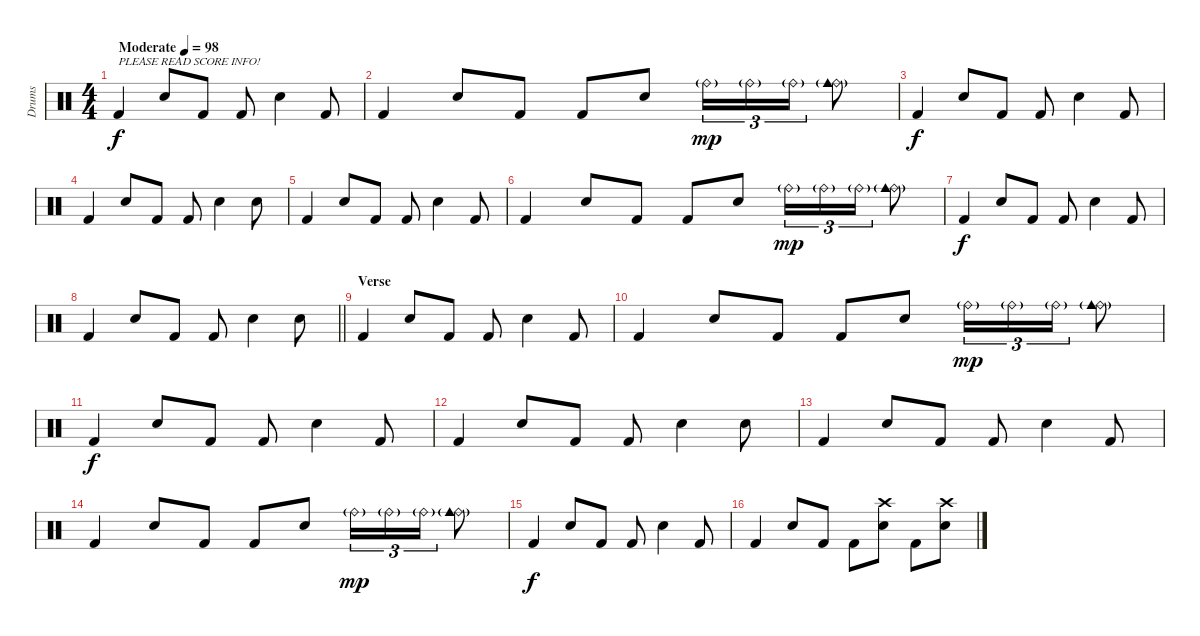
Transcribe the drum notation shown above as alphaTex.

\track ("Drums" "Drums") {instrument percussion}
\staff
\articulation defaults
\ts (4 4)
\tempo (98 "Moderate")
\clef neutral
\ks c "Kick (hit) 2".4{txt "PLEASE READ SCORE INFO!" dy f} "Snare (hit) 2".8 "Kick (hit) 2".8 "Kick (hit) 2".8 "Snare (hit) 2".4 "Kick (hit) 2".8
|
"Kick (hit) 2".4 "Snare (hit) 2".8 "Kick (hit) 2".8 "Kick (hit) 2".8 "Snare (hit) 2".8 "Ride (bell)"{g}.16{tu (3 2) dy mp} "Ride (bell)"{g}.16{tu (3 2)} "Ride (bell)"{g}.16{tu (3 2)} ("Ride (bell)"{g} "Cowbell medium (hit)").8 |
"Kick (hit) 2".4{dy f} "Snare (hit) 2".8 "Kick (hit) 2".8 "Kick (hit) 2".8 "Snare (hit) 2".4 "Kick (hit) 2".8 |
"Kick (hit) 2".4 "Snare (hit) 2".8 "Kick (hit) 2".8 "Kick (hit) 2".8 "Snare (hit) 2".4 "Snare (hit) 2".8 |
"Kick (hit) 2".4 "Snare (hit) 2".8 "Kick (hit) 2".8 "Kick (hit) 2".8 "Snare (hit) 2".4 "Kick (hit) 2".8 |
"Kick (hit) 2".4 "Snare (hit) 2".8 "Kick (hit) 2".8 "Kick (hit) 2".8 "Snare (hit) 2".8 "Ride (bell)"{g}.16{tu (3 2) dy mp} "Ride (bell)"{g}.16{tu (3 2)} "Ride (bell)"{g}.16{tu (3 2)} ("Ride (bell)"{g} "Cowbell medium (hit)").8 |
"Kick (hit) 2".4{dy f} "Snare (hit) 2".8 "Kick (hit) 2".8 "Kick (hit) 2".8 "Snare (hit) 2".4 "Kick (hit) 2".8 |
\barLineRight lightlight "Kick (hit) 2".4 "Snare (hit) 2".8 "Kick (hit) 2".8 "Kick (hit) 2".8 "Snare (hit) 2".4 "Snare (hit) 2".8
|
\section ("" "Verse")
"Kick (hit) 2".4 "Snare (hit) 2".8 "Kick (hit) 2".8 "Kick (hit) 2".8 "Snare (hit) 2".4 "Kick (hit) 2".8 |
"Kick (hit) 2".4 "Snare (hit) 2".8 "Kick (hit) 2".8 "Kick (hit) 2".8 "Snare (hit) 2".8 "Ride (bell)"{g}.16{tu (3 2) dy mp} "Ride (bell)"{g}.16{tu (3 2)} "Ride (bell)"{g}.16{tu (3 2)} ("Ride (bell)"{g} "Cowbell medium (hit)").8 |
"Kick (hit) 2".4{dy f} "Snare (hit) 2".8 "Kick (hit) 2".8 "Kick (hit) 2".8 "Snare (hit) 2".4 "Kick (hit) 2".8 |
"Kick (hit) 2".4 "Snare (hit) 2".8 "Kick (hit) 2".8 "Kick (hit) 2".8 "Snare (hit) 2".4 "Snare (hit) 2".8 |
"Kick (hit) 2".4 "Snare (hit) 2".8 "Kick (hit) 2".8 "Kick (hit) 2".8 "Snare (hit) 2".4 "Kick (hit) 2".8 |
"Kick (hit) 2".4 "Snare (hit) 2".8 "Kick (hit) 2".8 "Kick (hit) 2".8 "Snare (hit) 2".8 "Ride (bell)"{g}.16{tu (3 2) dy mp} "Ride (bell)"{g}.16{tu (3 2)} "Ride (bell)"{g}.16{tu (3 2)} ("Ride (bell)"{g} "Cowbell medium (hit)").8 |
"Kick (hit) 2".4{dy f} "Snare (hit) 2".8 "Kick (hit) 2".8 "Kick (hit) 2".8 "Snare (hit) 2".4 "Kick (hit) 2".8 |
"Kick (hit) 2".4 "Snare (hit) 2".8 "Kick (hit) 2".8 "Kick (hit) 2".8 ("Crash high (hit)" "Snare (hit) 2").8 "Kick (hit) 2".8 ("Crash high (hit)" "Snare (hit) 2").8
